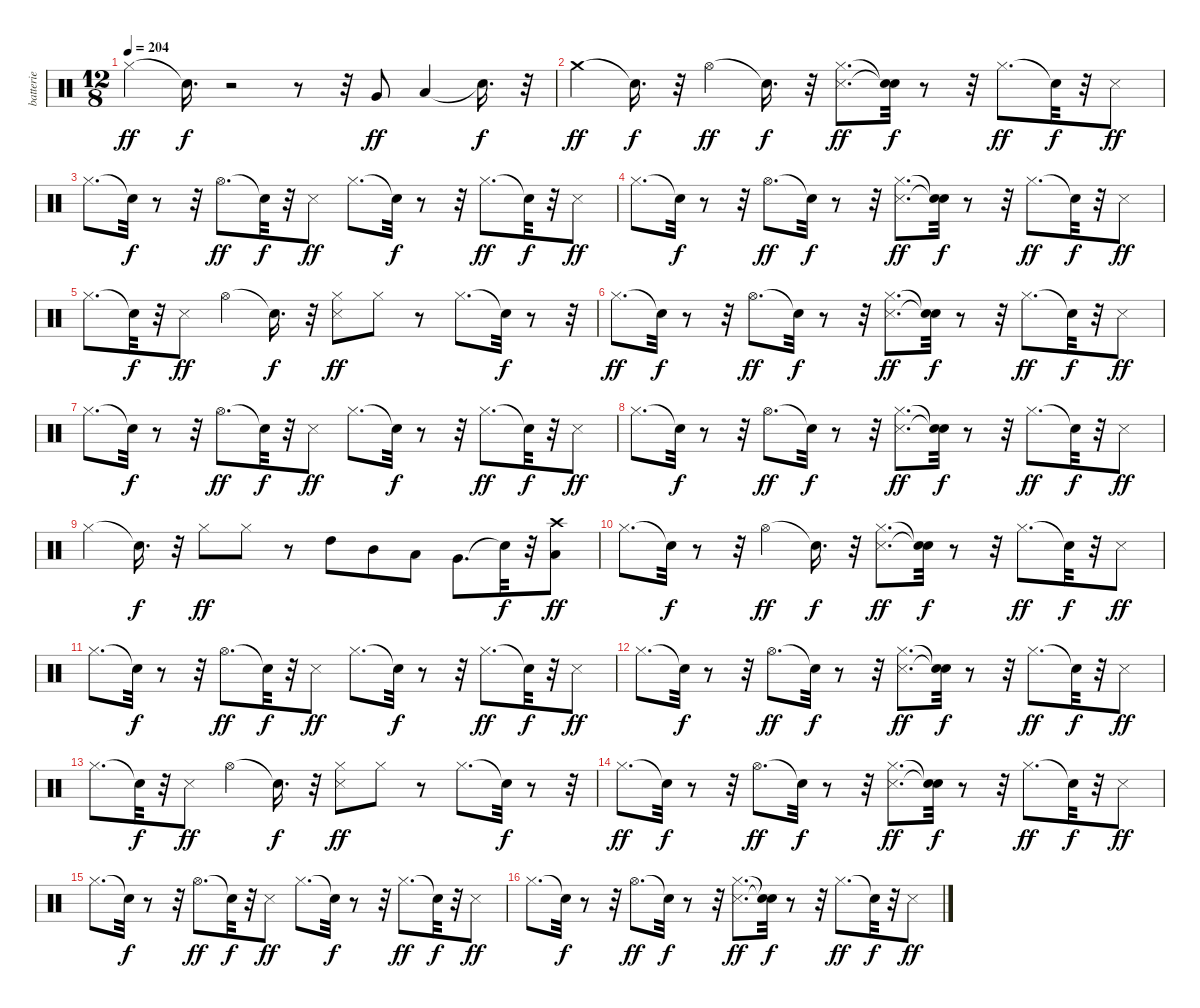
\track ("batterie" "batterie") {instrument percussion}
\staff {score}
\articulation defaults
\ts (12 8)
\tempo 204
\clef neutral
\ks c "Hi-Hat (closed)".4{dy ff} "Snare (hit)"{t}.16{d dy f}
r.2 r.8 r.32 "Very Low Tom (hit)".8{dy ff} "Low Floor Tom (hit)".4 "Snare (hit)"{t}.16{d dy f} r.32 |
"Crash medium (hit)".4{dy ff} "Snare (hit)"{t}.16{d dy f} r.32 "Hi-Hat (open)".4{dy ff} "Snare (hit)"{t}.16{d dy f} r.32 ("Snare (side stick) 3" "Hi-Hat (closed)").8{d dy ff} ("Snare (hit)"{t} "Snare (hit)"{t}).32{dy f} r.8 r.32 "Hi-Hat (closed)".8{d dy ff} "Snare (hit)"{t}.32{dy f} r.32 "Snare (side stick) 3".8{dy ff} |
"Hi-Hat (closed)".8{d} "Snare (hit)"{t}.32{dy f} r.8 r.32 "Hi-Hat (open)".8{d dy ff} "Snare (hit)"{t}.32{dy f} r.32 "Snare (side stick) 3".8{dy ff} "Hi-Hat (closed)".8{d} "Snare (hit)"{t}.32{dy f} r.8 r.32 "Hi-Hat (closed)".8{d dy ff} "Snare (hit)"{t}.32{dy f} r.32 "Snare (side stick) 3".8{dy ff} |
"Hi-Hat (closed)".8{d} "Snare (hit)"{t}.32{dy f} r.8 r.32 "Hi-Hat (open)".8{d dy ff} "Snare (hit)"{t}.32{dy f} r.8 r.32 ("Snare (side stick) 3" "Hi-Hat (closed)").8{d dy ff} ("Snare (hit)"{t} "Snare (hit)"{t}).32{dy f} r.8 r.32 "Hi-Hat (closed)".8{d dy ff} "Snare (hit)"{t}.32{dy f} r.32 "Snare (side stick) 3".8{dy ff} |
"Hi-Hat (closed)".8{d} "Snare (hit)"{t}.32{dy f} r.32 "Snare (side stick) 3".8{dy ff} "Hi-Hat (open)".4 "Snare (hit)"{t}.16{d dy f} r.32 ("Snare (side stick) 3" "Hi-Hat (closed)").8{dy ff} "Hi-Hat (closed)".8 r.8 "Hi-Hat (closed)".8{d} "Snare (hit)"{t}.32{dy f} r.8 r.32 |
"Hi-Hat (closed)".8{d dy ff} "Snare (hit)"{t}.32{dy f} r.8 r.32 "Hi-Hat (open)".8{d dy ff} "Snare (hit)"{t}.32{dy f} r.8 r.32 ("Snare (side stick) 3" "Hi-Hat (closed)").8{d dy ff} ("Snare (hit)"{t} "Snare (hit)"{t}).32{dy f} r.8 r.32 "Hi-Hat (closed)".8{d dy ff} "Snare (hit)"{t}.32{dy f} r.32 "Snare (side stick) 3".8{dy ff} |
"Hi-Hat (closed)".8{d} "Snare (hit)"{t}.32{dy f} r.8 r.32 "Hi-Hat (open)".8{d dy ff} "Snare (hit)"{t}.32{dy f} r.32 "Snare (side stick) 3".8{dy ff} "Hi-Hat (closed)".8{d} "Snare (hit)"{t}.32{dy f} r.8 r.32 "Hi-Hat (closed)".8{d dy ff} "Snare (hit)"{t}.32{dy f} r.32 "Snare (side stick) 3".8{dy ff} |
"Hi-Hat (closed)".8{d} "Snare (hit)"{t}.32{dy f} r.8 r.32 "Hi-Hat (open)".8{d dy ff} "Snare (hit)"{t}.32{dy f} r.8 r.32 ("Snare (side stick) 3" "Hi-Hat (closed)").8{d dy ff} ("Snare (hit)"{t} "Snare (hit)"{t}).32{dy f} r.8 r.32 "Hi-Hat (closed)".8{d dy ff} "Snare (hit)"{t}.32{dy f} r.32 "Snare (side stick) 3".8{dy ff} |
"Hi-Hat (closed)".4 "Snare (hit)"{t}.16{d dy f} r.32 "Hi-Hat (closed)".8{dy ff} "Hi-Hat (closed)".8 r.8 "High Tom (hit)".8 "Mid Tom (hit)".8 "Low Tom (hit)".8 "Very Low Tom (hit)".8{d} "Snare (hit)"{t}.32{dy f} r.32 ("Low Floor Tom (hit)" "Crash high (hit)").8{dy ff} |
"Hi-Hat (closed)".8{d} "Snare (hit)"{t}.32{dy f} r.8 r.32 "Hi-Hat (open)".4{dy ff} "Snare (hit)"{t}.16{d dy f} r.32 ("Snare (side stick) 3" "Hi-Hat (closed)").8{d dy ff} ("Snare (hit)"{t} "Snare (hit)"{t}).32{dy f} r.8 r.32 "Hi-Hat (closed)".8{d dy ff} "Snare (hit)"{t}.32{dy f} r.32 "Snare (side stick) 3".8{dy ff} |
"Hi-Hat (closed)".8{d} "Snare (hit)"{t}.32{dy f} r.8 r.32 "Hi-Hat (open)".8{d dy ff} "Snare (hit)"{t}.32{dy f} r.32 "Snare (side stick) 3".8{dy ff} "Hi-Hat (closed)".8{d} "Snare (hit)"{t}.32{dy f} r.8 r.32 "Hi-Hat (closed)".8{d dy ff} "Snare (hit)"{t}.32{dy f} r.32 "Snare (side stick) 3".8{dy ff} |
"Hi-Hat (closed)".8{d} "Snare (hit)"{t}.32{dy f} r.8 r.32 "Hi-Hat (open)".8{d dy ff} "Snare (hit)"{t}.32{dy f} r.8 r.32 ("Snare (side stick) 3" "Hi-Hat (closed)").8{d dy ff} ("Snare (hit)"{t} "Snare (hit)"{t}).32{dy f} r.8 r.32 "Hi-Hat (closed)".8{d dy ff} "Snare (hit)"{t}.32{dy f} r.32 "Snare (side stick) 3".8{dy ff} |
"Hi-Hat (closed)".8{d} "Snare (hit)"{t}.32{dy f} r.32 "Snare (side stick) 3".8{dy ff} "Hi-Hat (open)".4 "Snare (hit)"{t}.16{d dy f} r.32 ("Snare (side stick) 3" "Hi-Hat (closed)").8{dy ff} "Hi-Hat (closed)".8 r.8 "Hi-Hat (closed)".8{d} "Snare (hit)"{t}.32{dy f} r.8 r.32 |
"Hi-Hat (closed)".8{d dy ff} "Snare (hit)"{t}.32{dy f} r.8 r.32 "Hi-Hat (open)".8{d dy ff} "Snare (hit)"{t}.32{dy f} r.8 r.32 ("Snare (side stick) 3" "Hi-Hat (closed)").8{d dy ff} ("Snare (hit)"{t} "Snare (hit)"{t}).32{dy f} r.8 r.32 "Hi-Hat (closed)".8{d dy ff} "Snare (hit)"{t}.32{dy f} r.32 "Snare (side stick) 3".8{dy ff} |
"Hi-Hat (closed)".8{d} "Snare (hit)"{t}.32{dy f} r.8 r.32 "Hi-Hat (open)".8{d dy ff} "Snare (hit)"{t}.32{dy f} r.32 "Snare (side stick) 3".8{dy ff} "Hi-Hat (closed)".8{d} "Snare (hit)"{t}.32{dy f} r.8 r.32 "Hi-Hat (closed)".8{d dy ff} "Snare (hit)"{t}.32{dy f} r.32 "Snare (side stick) 3".8{dy ff} |
"Hi-Hat (closed)".8{d} "Snare (hit)"{t}.32{dy f} r.8 r.32 "Hi-Hat (open)".8{d dy ff} "Snare (hit)"{t}.32{dy f} r.8 r.32 ("Snare (side stick) 3" "Hi-Hat (closed)").8{d dy ff} ("Snare (hit)"{t} "Snare (hit)"{t}).32{dy f} r.8 r.32 "Hi-Hat (closed)".8{d dy ff} "Snare (hit)"{t}.32{dy f} r.32 "Snare (side stick) 3".8{dy ff}
